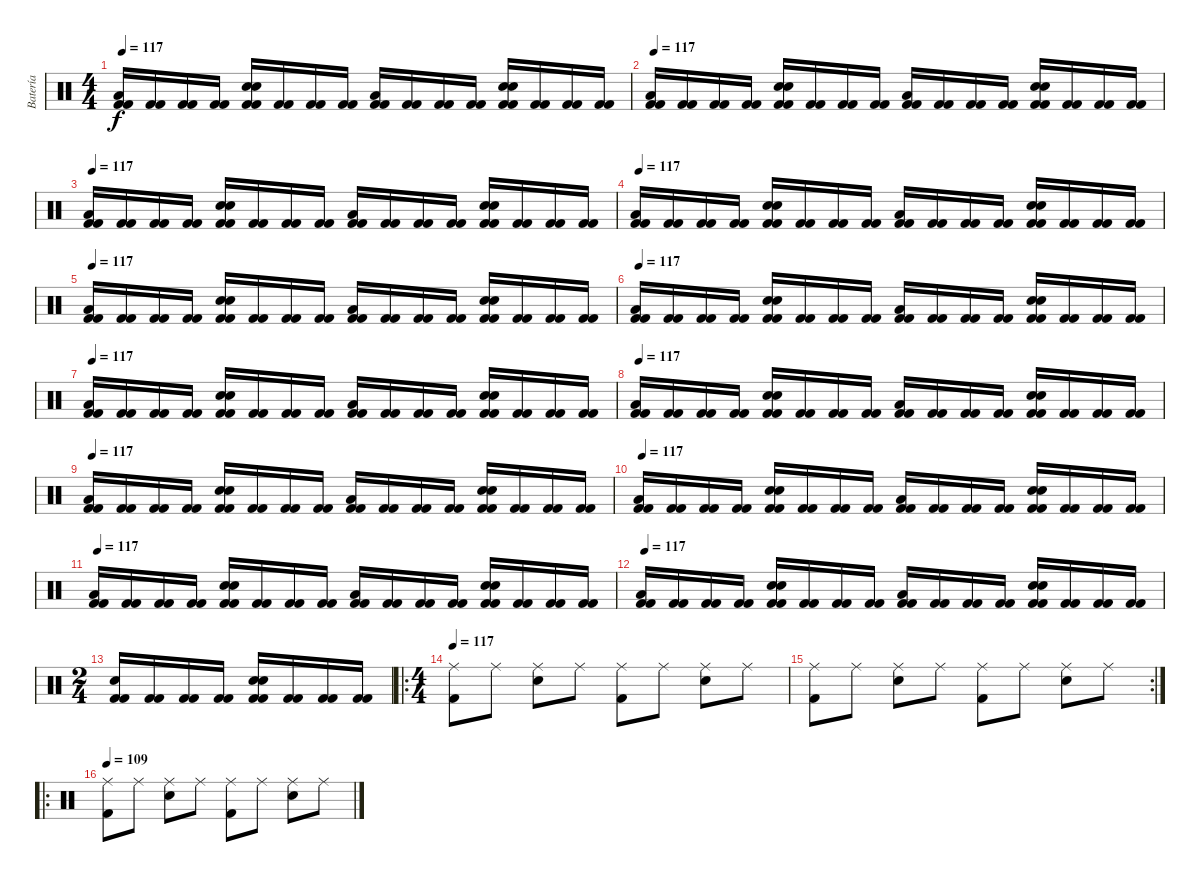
\track ("Batería   (Jony)" "Batería   ") {instrument percussion}
\staff {score}
\articulation defaults
\ts (4 4)
\tempo 117
\clef neutral
\ks c
("Low Floor Tom (hit)" "Kick (hit) 2" "Kick (hit) 2").16{dy f} ("Kick (hit) 2" "Kick (hit) 2").16 ("Kick (hit) 2" "Kick (hit) 2").16 ("Kick (hit) 2" "Kick (hit) 2").16 ("Electric Snare (hit)" "Snare (hit) 2" "Kick (hit) 2" "Kick (hit) 2").16 ("Kick (hit) 2" "Kick (hit) 2").16 ("Kick (hit) 2" "Kick (hit) 2").16 ("Kick (hit) 2" "Kick (hit) 2").16 ("Low Floor Tom (hit)" "Kick (hit) 2" "Kick (hit) 2").16 ("Kick (hit) 2" "Kick (hit) 2").16 ("Kick (hit) 2" "Kick (hit) 2").16 ("Kick (hit) 2" "Kick (hit) 2").16 ("Electric Snare (hit)" "Snare (hit) 2" "Kick (hit) 2" "Kick (hit) 2").16 ("Kick (hit) 2" "Kick (hit) 2").16 ("Kick (hit) 2" "Kick (hit) 2").16 ("Kick (hit) 2" "Kick (hit) 2").16 |
\tempo 117
("Low Floor Tom (hit)" "Kick (hit) 2" "Kick (hit) 2").16 ("Kick (hit) 2" "Kick (hit) 2").16 ("Kick (hit) 2" "Kick (hit) 2").16 ("Kick (hit) 2" "Kick (hit) 2").16 ("Electric Snare (hit)" "Snare (hit) 2" "Kick (hit) 2" "Kick (hit) 2").16 ("Kick (hit) 2" "Kick (hit) 2").16 ("Kick (hit) 2" "Kick (hit) 2").16 ("Kick (hit) 2" "Kick (hit) 2").16 ("Low Floor Tom (hit)" "Kick (hit) 2" "Kick (hit) 2").16 ("Kick (hit) 2" "Kick (hit) 2").16 ("Kick (hit) 2" "Kick (hit) 2").16 ("Kick (hit) 2" "Kick (hit) 2").16 ("Electric Snare (hit)" "Snare (hit) 2" "Kick (hit) 2" "Kick (hit) 2").16 ("Kick (hit) 2" "Kick (hit) 2").16 ("Kick (hit) 2" "Kick (hit) 2").16 ("Kick (hit) 2" "Kick (hit) 2").16 |
\tempo 117
("Low Floor Tom (hit)" "Kick (hit) 2" "Kick (hit) 2").16 ("Kick (hit) 2" "Kick (hit) 2").16 ("Kick (hit) 2" "Kick (hit) 2").16 ("Kick (hit) 2" "Kick (hit) 2").16 ("Electric Snare (hit)" "Snare (hit) 2" "Kick (hit) 2" "Kick (hit) 2").16 ("Kick (hit) 2" "Kick (hit) 2").16 ("Kick (hit) 2" "Kick (hit) 2").16 ("Kick (hit) 2" "Kick (hit) 2").16 ("Low Floor Tom (hit)" "Kick (hit) 2" "Kick (hit) 2").16 ("Kick (hit) 2" "Kick (hit) 2").16 ("Kick (hit) 2" "Kick (hit) 2").16 ("Kick (hit) 2" "Kick (hit) 2").16 ("Electric Snare (hit)" "Snare (hit) 2" "Kick (hit) 2" "Kick (hit) 2").16 ("Kick (hit) 2" "Kick (hit) 2").16 ("Kick (hit) 2" "Kick (hit) 2").16 ("Kick (hit) 2" "Kick (hit) 2").16 |
\tempo 117
("Low Floor Tom (hit)" "Kick (hit) 2" "Kick (hit) 2").16 ("Kick (hit) 2" "Kick (hit) 2").16 ("Kick (hit) 2" "Kick (hit) 2").16 ("Kick (hit) 2" "Kick (hit) 2").16 ("Electric Snare (hit)" "Snare (hit) 2" "Kick (hit) 2" "Kick (hit) 2").16 ("Kick (hit) 2" "Kick (hit) 2").16 ("Kick (hit) 2" "Kick (hit) 2").16 ("Kick (hit) 2" "Kick (hit) 2").16 ("Low Floor Tom (hit)" "Kick (hit) 2" "Kick (hit) 2").16 ("Kick (hit) 2" "Kick (hit) 2").16 ("Kick (hit) 2" "Kick (hit) 2").16 ("Kick (hit) 2" "Kick (hit) 2").16 ("Electric Snare (hit)" "Snare (hit) 2" "Kick (hit) 2" "Kick (hit) 2").16 ("Kick (hit) 2" "Kick (hit) 2").16 ("Kick (hit) 2" "Kick (hit) 2").16 ("Kick (hit) 2" "Kick (hit) 2").16 |
\tempo 117
("Low Floor Tom (hit)" "Kick (hit) 2" "Kick (hit) 2").16 ("Kick (hit) 2" "Kick (hit) 2").16 ("Kick (hit) 2" "Kick (hit) 2").16 ("Kick (hit) 2" "Kick (hit) 2").16 ("Electric Snare (hit)" "Snare (hit) 2" "Kick (hit) 2" "Kick (hit) 2").16 ("Kick (hit) 2" "Kick (hit) 2").16 ("Kick (hit) 2" "Kick (hit) 2").16 ("Kick (hit) 2" "Kick (hit) 2").16 ("Low Floor Tom (hit)" "Kick (hit) 2" "Kick (hit) 2").16 ("Kick (hit) 2" "Kick (hit) 2").16 ("Kick (hit) 2" "Kick (hit) 2").16 ("Kick (hit) 2" "Kick (hit) 2").16 ("Electric Snare (hit)" "Snare (hit) 2" "Kick (hit) 2" "Kick (hit) 2").16 ("Kick (hit) 2" "Kick (hit) 2").16 ("Kick (hit) 2" "Kick (hit) 2").16 ("Kick (hit) 2" "Kick (hit) 2").16 |
\tempo 117
("Low Floor Tom (hit)" "Kick (hit) 2" "Kick (hit) 2").16 ("Kick (hit) 2" "Kick (hit) 2").16 ("Kick (hit) 2" "Kick (hit) 2").16 ("Kick (hit) 2" "Kick (hit) 2").16 ("Electric Snare (hit)" "Snare (hit) 2" "Kick (hit) 2" "Kick (hit) 2").16 ("Kick (hit) 2" "Kick (hit) 2").16 ("Kick (hit) 2" "Kick (hit) 2").16 ("Kick (hit) 2" "Kick (hit) 2").16 ("Low Floor Tom (hit)" "Kick (hit) 2" "Kick (hit) 2").16 ("Kick (hit) 2" "Kick (hit) 2").16 ("Kick (hit) 2" "Kick (hit) 2").16 ("Kick (hit) 2" "Kick (hit) 2").16 ("Electric Snare (hit)" "Snare (hit) 2" "Kick (hit) 2" "Kick (hit) 2").16 ("Kick (hit) 2" "Kick (hit) 2").16 ("Kick (hit) 2" "Kick (hit) 2").16 ("Kick (hit) 2" "Kick (hit) 2").16 |
\tempo 117
("Low Floor Tom (hit)" "Kick (hit) 2" "Kick (hit) 2").16 ("Kick (hit) 2" "Kick (hit) 2").16 ("Kick (hit) 2" "Kick (hit) 2").16 ("Kick (hit) 2" "Kick (hit) 2").16 ("Electric Snare (hit)" "Snare (hit) 2" "Kick (hit) 2" "Kick (hit) 2").16 ("Kick (hit) 2" "Kick (hit) 2").16 ("Kick (hit) 2" "Kick (hit) 2").16 ("Kick (hit) 2" "Kick (hit) 2").16 ("Low Floor Tom (hit)" "Kick (hit) 2" "Kick (hit) 2").16 ("Kick (hit) 2" "Kick (hit) 2").16 ("Kick (hit) 2" "Kick (hit) 2").16 ("Kick (hit) 2" "Kick (hit) 2").16 ("Electric Snare (hit)" "Snare (hit) 2" "Kick (hit) 2" "Kick (hit) 2").16 ("Kick (hit) 2" "Kick (hit) 2").16 ("Kick (hit) 2" "Kick (hit) 2").16 ("Kick (hit) 2" "Kick (hit) 2").16 |
\tempo 117
("Low Floor Tom (hit)" "Kick (hit) 2" "Kick (hit) 2").16 ("Kick (hit) 2" "Kick (hit) 2").16 ("Kick (hit) 2" "Kick (hit) 2").16 ("Kick (hit) 2" "Kick (hit) 2").16 ("Electric Snare (hit)" "Snare (hit) 2" "Kick (hit) 2" "Kick (hit) 2").16 ("Kick (hit) 2" "Kick (hit) 2").16 ("Kick (hit) 2" "Kick (hit) 2").16 ("Kick (hit) 2" "Kick (hit) 2").16 ("Low Floor Tom (hit)" "Kick (hit) 2" "Kick (hit) 2").16 ("Kick (hit) 2" "Kick (hit) 2").16 ("Kick (hit) 2" "Kick (hit) 2").16 ("Kick (hit) 2" "Kick (hit) 2").16 ("Electric Snare (hit)" "Snare (hit) 2" "Kick (hit) 2" "Kick (hit) 2").16 ("Kick (hit) 2" "Kick (hit) 2").16 ("Kick (hit) 2" "Kick (hit) 2").16 ("Kick (hit) 2" "Kick (hit) 2").16 |
\tempo 117
("Low Floor Tom (hit)" "Kick (hit) 2" "Kick (hit) 2").16 ("Kick (hit) 2" "Kick (hit) 2").16 ("Kick (hit) 2" "Kick (hit) 2").16 ("Kick (hit) 2" "Kick (hit) 2").16 ("Electric Snare (hit)" "Snare (hit) 2" "Kick (hit) 2" "Kick (hit) 2").16 ("Kick (hit) 2" "Kick (hit) 2").16 ("Kick (hit) 2" "Kick (hit) 2").16 ("Kick (hit) 2" "Kick (hit) 2").16 ("Low Floor Tom (hit)" "Kick (hit) 2" "Kick (hit) 2").16 ("Kick (hit) 2" "Kick (hit) 2").16 ("Kick (hit) 2" "Kick (hit) 2").16 ("Kick (hit) 2" "Kick (hit) 2").16 ("Electric Snare (hit)" "Snare (hit) 2" "Kick (hit) 2" "Kick (hit) 2").16 ("Kick (hit) 2" "Kick (hit) 2").16 ("Kick (hit) 2" "Kick (hit) 2").16 ("Kick (hit) 2" "Kick (hit) 2").16 |
\tempo 117
("Low Floor Tom (hit)" "Kick (hit) 2" "Kick (hit) 2").16 ("Kick (hit) 2" "Kick (hit) 2").16 ("Kick (hit) 2" "Kick (hit) 2").16 ("Kick (hit) 2" "Kick (hit) 2").16 ("Electric Snare (hit)" "Snare (hit) 2" "Kick (hit) 2" "Kick (hit) 2").16 ("Kick (hit) 2" "Kick (hit) 2").16 ("Kick (hit) 2" "Kick (hit) 2").16 ("Kick (hit) 2" "Kick (hit) 2").16 ("Low Floor Tom (hit)" "Kick (hit) 2" "Kick (hit) 2").16 ("Kick (hit) 2" "Kick (hit) 2").16 ("Kick (hit) 2" "Kick (hit) 2").16 ("Kick (hit) 2" "Kick (hit) 2").16 ("Electric Snare (hit)" "Snare (hit) 2" "Kick (hit) 2" "Kick (hit) 2").16 ("Kick (hit) 2" "Kick (hit) 2").16 ("Kick (hit) 2" "Kick (hit) 2").16 ("Kick (hit) 2" "Kick (hit) 2").16 |
\tempo 117
("Low Floor Tom (hit)" "Kick (hit) 2" "Kick (hit) 2").16 ("Kick (hit) 2" "Kick (hit) 2").16 ("Kick (hit) 2" "Kick (hit) 2").16 ("Kick (hit) 2" "Kick (hit) 2").16 ("Electric Snare (hit)" "Snare (hit) 2" "Kick (hit) 2" "Kick (hit) 2").16 ("Kick (hit) 2" "Kick (hit) 2").16 ("Kick (hit) 2" "Kick (hit) 2").16 ("Kick (hit) 2" "Kick (hit) 2").16 ("Low Floor Tom (hit)" "Kick (hit) 2" "Kick (hit) 2").16 ("Kick (hit) 2" "Kick (hit) 2").16 ("Kick (hit) 2" "Kick (hit) 2").16 ("Kick (hit) 2" "Kick (hit) 2").16 ("Electric Snare (hit)" "Snare (hit) 2" "Kick (hit) 2" "Kick (hit) 2").16 ("Kick (hit) 2" "Kick (hit) 2").16 ("Kick (hit) 2" "Kick (hit) 2").16 ("Kick (hit) 2" "Kick (hit) 2").16 |
\tempo 117
("Low Floor Tom (hit)" "Kick (hit) 2" "Kick (hit) 2").16 ("Kick (hit) 2" "Kick (hit) 2").16 ("Kick (hit) 2" "Kick (hit) 2").16 ("Kick (hit) 2" "Kick (hit) 2").16 ("Electric Snare (hit)" "Snare (hit) 2" "Kick (hit) 2" "Kick (hit) 2").16 ("Kick (hit) 2" "Kick (hit) 2").16 ("Kick (hit) 2" "Kick (hit) 2").16 ("Kick (hit) 2" "Kick (hit) 2").16 ("Low Floor Tom (hit)" "Kick (hit) 2" "Kick (hit) 2").16 ("Kick (hit) 2" "Kick (hit) 2").16 ("Kick (hit) 2" "Kick (hit) 2").16 ("Kick (hit) 2" "Kick (hit) 2").16 ("Electric Snare (hit)" "Snare (hit) 2" "Kick (hit) 2" "Kick (hit) 2").16 ("Kick (hit) 2" "Kick (hit) 2").16 ("Kick (hit) 2" "Kick (hit) 2").16 ("Kick (hit) 2" "Kick (hit) 2").16 |
\ts (2 4)
("Electric Snare (hit)" "Kick (hit) 2" "Kick (hit) 2").16 ("Kick (hit) 2" "Kick (hit) 2").16 ("Kick (hit) 2" "Kick (hit) 2").16 ("Kick (hit) 2" "Kick (hit) 2").16 ("Electric Snare (hit)" "Snare (hit) 2" "Kick (hit) 2" "Kick (hit) 2").16 ("Kick (hit) 2" "Kick (hit) 2").16 ("Kick (hit) 2" "Kick (hit) 2").16 ("Kick (hit) 2" "Kick (hit) 2").16 |
\ro
\ts (4 4)
\tempo 117
("Kick (hit) 2" "Ride (middle)").8 "Ride (middle)".8 ("Snare (hit) 2" "Ride (middle)").8 "Ride (middle)".8 ("Kick (hit) 2" "Ride (middle)").8 "Ride (middle)".8 ("Snare (hit) 2" "Ride (middle)").8 "Ride (middle)".8 |
\rc 2
("Kick (hit) 2" "Ride (middle)").8 "Ride (middle)".8 ("Snare (hit) 2" "Ride (middle)").8 "Ride (middle)".8 ("Kick (hit) 2" "Ride (middle)").8 "Ride (middle)".8 ("Snare (hit) 2" "Ride (middle)").8 "Ride (middle)".8 |
\ro
\tempo 109
("Kick (hit) 2" "Ride (middle)").8 "Ride (middle)".8 ("Snare (hit) 2" "Ride (middle)").8 "Ride (middle)".8 ("Kick (hit) 2" "Ride (middle)").8 "Ride (middle)".8 ("Snare (hit) 2" "Ride (middle)").8 "Ride (middle)".8
